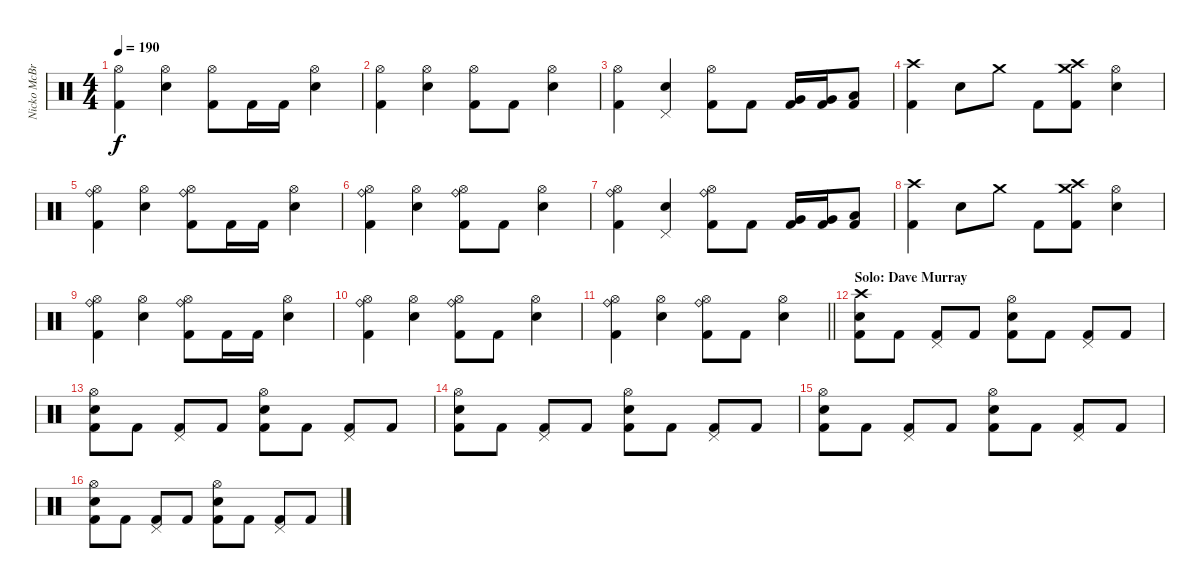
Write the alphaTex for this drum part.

\track ("Nicko McBrain" "Nicko McBr") {instrument percussion}
\staff {score}
\articulation defaults
\ts (4 4)
\tempo 190
\clef neutral
\ks c
("Hi-Hat (open)" "Kick (hit) 2").4{dy f} ("Hi-Hat (open)" "Electric Snare (hit)").4 ("Hi-Hat (open)" "Kick (hit) 2").8 "Kick (hit) 2".16 "Kick (hit) 2".16 ("Hi-Hat (open)" "Electric Snare (hit)").4 |
("Hi-Hat (open)" "Kick (hit) 2").4 ("Hi-Hat (open)" "Electric Snare (hit)").4 ("Hi-Hat (open)" "Kick (hit) 2").8 "Kick (hit) 2".8 ("Hi-Hat (open)" "Electric Snare (hit)").4 |
("Hi-Hat (open)" "Kick (hit) 2").4 ("Pedal Hi-Hat (hit)" "Electric Snare (hit)").4 ("Hi-Hat (open)" "Kick (hit) 2").8 "Kick (hit) 2".8 ("Very Low Tom (hit)" "Kick (hit) 2").16 ("Very Low Tom (hit)" "Kick (hit) 2").16 ("Low Floor Tom (hit)" "Kick (hit) 2").8 |
("Crash high (hit)" "Kick (hit) 2").4 "Electric Snare (hit)".8 "Crash medium (hit)".8 "Kick (hit) 2".8 ("Crash medium (hit)" "Crash high (hit)" "Kick (hit) 2").8 ("Hi-Hat (open)" "Electric Snare (hit)").4 |
("Hi-Hat (open)" "Ride (bell)" "Kick (hit) 2").4 ("Hi-Hat (open)" "Electric Snare (hit)").4 ("Hi-Hat (open)" "Ride (bell)" "Kick (hit) 2").8 "Kick (hit) 2".16 "Kick (hit) 2".16 ("Hi-Hat (open)" "Electric Snare (hit)").4 |
("Hi-Hat (open)" "Ride (bell)" "Kick (hit) 2").4 ("Hi-Hat (open)" "Electric Snare (hit)").4 ("Hi-Hat (open)" "Ride (bell)" "Kick (hit) 2").8 "Kick (hit) 2".8 ("Hi-Hat (open)" "Electric Snare (hit)").4 |
("Hi-Hat (open)" "Ride (bell)" "Kick (hit) 2").4 ("Pedal Hi-Hat (hit)" "Electric Snare (hit)").4 ("Hi-Hat (open)" "Ride (bell)" "Kick (hit) 2").8 "Kick (hit) 2".8 ("Very Low Tom (hit)" "Kick (hit) 2").16 ("Very Low Tom (hit)" "Kick (hit) 2").16 ("Low Floor Tom (hit)" "Kick (hit) 2").8 |
("Crash high (hit)" "Kick (hit) 2").4 "Electric Snare (hit)".8 "Crash medium (hit)".8 "Kick (hit) 2".8 ("Crash medium (hit)" "Crash high (hit)" "Kick (hit) 2").8 ("Hi-Hat (open)" "Electric Snare (hit)").4 |
("Hi-Hat (open)" "Ride (bell)" "Kick (hit) 2").4 ("Hi-Hat (open)" "Electric Snare (hit)").4 ("Hi-Hat (open)" "Ride (bell)" "Kick (hit) 2").8 "Kick (hit) 2".16 "Kick (hit) 2".16 ("Hi-Hat (open)" "Electric Snare (hit)").4 |
("Hi-Hat (open)" "Ride (bell)" "Kick (hit) 2").4 ("Hi-Hat (open)" "Electric Snare (hit)").4 ("Hi-Hat (open)" "Ride (bell)" "Kick (hit) 2").8 "Kick (hit) 2".8 ("Hi-Hat (open)" "Electric Snare (hit)").4 |
\barLineRight lightlight
("Hi-Hat (open)" "Ride (bell)" "Kick (hit) 2").4 ("Hi-Hat (open)" "Electric Snare (hit)").4 ("Hi-Hat (open)" "Ride (bell)" "Kick (hit) 2").8 "Kick (hit) 2".8 ("Hi-Hat (open)" "Electric Snare (hit)").4 |
\section ("" "Solo: Dave Murray")
("Crash high (hit)" "Electric Snare (hit)" "Kick (hit) 2").8 "Kick (hit) 2".8 ("Pedal Hi-Hat (hit)" "Kick (hit) 2").8 "Kick (hit) 2".8 ("Hi-Hat (open)" "Electric Snare (hit)" "Kick (hit) 2").8 "Kick (hit) 2".8 ("Pedal Hi-Hat (hit)" "Kick (hit) 2").8 "Kick (hit) 2".8 |
("Hi-Hat (open)" "Electric Snare (hit)" "Kick (hit) 2").8 "Kick (hit) 2".8 ("Pedal Hi-Hat (hit)" "Kick (hit) 2").8 "Kick (hit) 2".8 ("Hi-Hat (open)" "Electric Snare (hit)" "Kick (hit) 2").8 "Kick (hit) 2".8 ("Pedal Hi-Hat (hit)" "Kick (hit) 2").8 "Kick (hit) 2".8 |
("Hi-Hat (open)" "Electric Snare (hit)" "Kick (hit) 2").8 "Kick (hit) 2".8 ("Pedal Hi-Hat (hit)" "Kick (hit) 2").8 "Kick (hit) 2".8 ("Hi-Hat (open)" "Electric Snare (hit)" "Kick (hit) 2").8 "Kick (hit) 2".8 ("Pedal Hi-Hat (hit)" "Kick (hit) 2").8 "Kick (hit) 2".8 |
("Hi-Hat (open)" "Electric Snare (hit)" "Kick (hit) 2").8 "Kick (hit) 2".8 ("Pedal Hi-Hat (hit)" "Kick (hit) 2").8 "Kick (hit) 2".8 ("Hi-Hat (open)" "Electric Snare (hit)" "Kick (hit) 2").8 "Kick (hit) 2".8 ("Pedal Hi-Hat (hit)" "Kick (hit) 2").8 "Kick (hit) 2".8 |
("Hi-Hat (open)" "Electric Snare (hit)" "Kick (hit) 2").8 "Kick (hit) 2".8 ("Pedal Hi-Hat (hit)" "Kick (hit) 2").8 "Kick (hit) 2".8 ("Hi-Hat (open)" "Electric Snare (hit)" "Kick (hit) 2").8 "Kick (hit) 2".8 ("Pedal Hi-Hat (hit)" "Kick (hit) 2").8 "Kick (hit) 2".8
